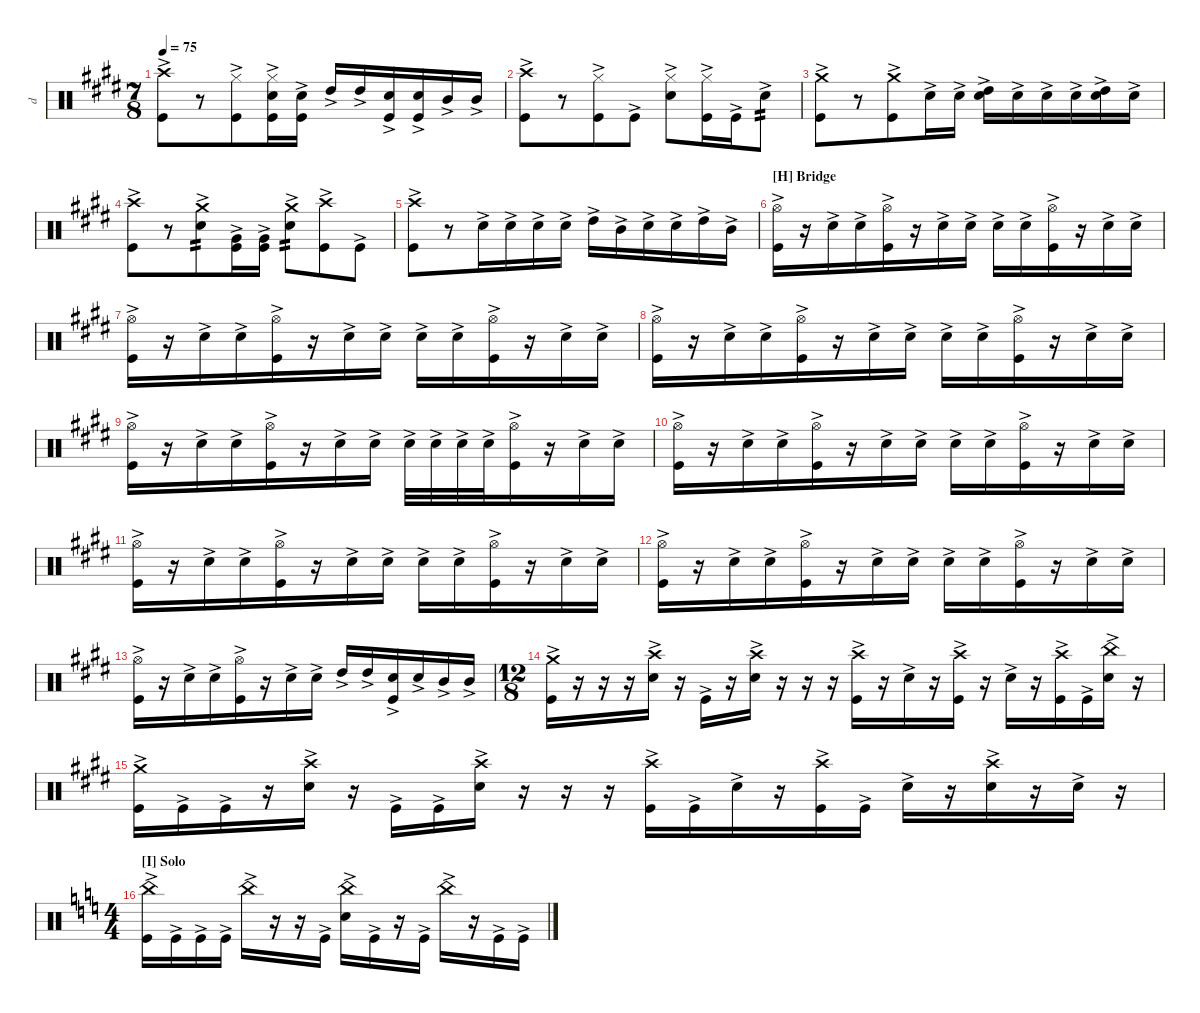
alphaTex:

\defaultSystemsLayout 4
\hideDynamics
\bracketExtendMode nobrackets
\otherSystemsTrackNameOrientation horizontal
\track ("Drumkit" "d") {instrument percussion}
\staff {score}
\articulation defaults
\ts (7 8)
\tempo 75
\clef neutral
\ks c#minor
("Crash high (hit)"{ac} "Kick (hit)"{ac}).8{dy mf} r.8 ("Hi-Hat (closed)"{ac} "Kick (hit)"{ac}).8 ("Hi-Hat (closed)"{ac} "Snare (hit) 2"{ac} "Kick (hit)"{ac}).16 ("Snare (hit) 2"{ac} "Kick (hit)"{ac}).16 "High Tom (hit)"{ac}.16 "High Tom (hit)"{ac}.16 ("Snare (hit) 2"{ac} "Kick (hit)"{ac}).16 ("Snare (hit) 2"{ac} "Kick (hit)"{ac}).16 "Mid Tom (hit)"{ac}.16 "Mid Tom (hit)"{ac}.16 |
("Crash high (hit)"{ac} "Kick (hit)"{ac}).8 r.8 ("Hi-Hat (closed)"{ac} "Kick (hit)"{ac}).8 "Kick (hit)"{ac}.8 ("Hi-Hat (closed)"{ac} "Snare (hit) 2"{ac}).8 ("Hi-Hat (closed)"{ac} "Kick (hit)"{ac}).16 "Kick (hit)"{ac}.16 "Snare (hit) 2"{ac}.8{tp 2} |
("Crash medium (hit)"{ac} "Kick (hit)"{ac}).8 r.8 ("Crash medium (hit)"{ac} "Kick (hit)"{ac}).8 "Snare (hit) 2"{ac}.16 "Snare (hit) 2"{ac}.16 ("High Tom (hit)"{ac} "Snare (hit) 2"{ac}).16 "Snare (hit) 2"{ac}.16 "Snare (hit) 2"{ac}.16 "Snare (hit) 2"{ac}.16 ("High Tom (hit)"{ac} "Snare (hit) 2"{ac}).16 "Snare (hit) 2"{ac}.16 |
("Crash high (hit)"{ac} "Kick (hit)"{ac}).8 r.8 ("Crash medium (hit)"{ac} "Snare (hit) 2"{ac}).8{tp 2} ("Very Low Tom (hit)"{ac} "Kick (hit)"{ac}).16 ("Very Low Tom (hit)"{ac} "Kick (hit)"{ac}).16 ("Crash medium (hit)"{ac} "Snare (hit) 2"{ac}).8{tp 2} ("Crash high (hit)"{ac} "Kick (hit)"{ac}).8 "Kick (hit)"{ac}.8 |
("Crash high (hit)"{ac} "Kick (hit)"{ac}).8 r.8 "Snare (hit) 2"{ac}.16 "Snare (hit) 2"{ac}.16 "Snare (hit) 2"{ac}.16 "Snare (hit) 2"{ac}.16 "High Tom (hit)"{ac}.16 "Mid Tom (hit)"{ac}.16 "Snare (hit) 2"{ac}.16 "Snare (hit) 2"{ac}.16 "High Tom (hit)"{ac}.16 "Mid Tom (hit)"{ac}.16 |
\section ("H" "Bridge")
("Hi-Hat (open)"{ac} "Kick (hit)"{ac}).16 r.16 "Snare (hit) 2"{ac}.16 "Snare (hit) 2"{ac}.16 ("Hi-Hat (open)"{ac} "Kick (hit)"{ac}).16 r.16 "Snare (hit) 2"{ac}.16 "Snare (hit) 2"{ac}.16 "Snare (hit) 2"{ac}.16 "Snare (hit) 2"{ac}.16 ("Hi-Hat (open)"{ac} "Kick (hit)"{ac}).16 r.16 "Snare (hit) 2"{ac}.16 "Snare (hit) 2"{ac}.16 |
("Hi-Hat (open)"{ac} "Kick (hit)"{ac}).16 r.16 "Snare (hit) 2"{ac}.16 "Snare (hit) 2"{ac}.16 ("Hi-Hat (open)"{ac} "Kick (hit)"{ac}).16 r.16 "Snare (hit) 2"{ac}.16 "Snare (hit) 2"{ac}.16 "Snare (hit) 2"{ac}.16 "Snare (hit) 2"{ac}.16 ("Hi-Hat (open)"{ac} "Kick (hit)"{ac}).16 r.16 "Snare (hit) 2"{ac}.16 "Snare (hit) 2"{ac}.16 |
("Hi-Hat (open)"{ac} "Kick (hit)"{ac}).16 r.16 "Snare (hit) 2"{ac}.16 "Snare (hit) 2"{ac}.16 ("Hi-Hat (open)"{ac} "Kick (hit)"{ac}).16 r.16 "Snare (hit) 2"{ac}.16 "Snare (hit) 2"{ac}.16 "Snare (hit) 2"{ac}.16 "Snare (hit) 2"{ac}.16 ("Hi-Hat (open)"{ac} "Kick (hit)"{ac}).16 r.16 "Snare (hit) 2"{ac}.16 "Snare (hit) 2"{ac}.16 |
("Hi-Hat (open)"{ac} "Kick (hit)"{ac}).16 r.16 "Snare (hit) 2"{ac}.16 "Snare (hit) 2"{ac}.16 ("Hi-Hat (open)"{ac} "Kick (hit)"{ac}).16 r.16 "Snare (hit) 2"{ac}.16 "Snare (hit) 2"{ac}.16 "Snare (hit) 2"{ac}.32 "Snare (hit) 2"{ac}.32 "Snare (hit) 2"{ac}.32 "Snare (hit) 2"{ac}.32 ("Hi-Hat (open)"{ac} "Kick (hit)"{ac}).16 r.16 "Snare (hit) 2"{ac}.16 "Snare (hit) 2"{ac}.16 |
("Hi-Hat (open)"{ac} "Kick (hit)"{ac}).16 r.16 "Snare (hit) 2"{ac}.16 "Snare (hit) 2"{ac}.16 ("Hi-Hat (open)"{ac} "Kick (hit)"{ac}).16 r.16 "Snare (hit) 2"{ac}.16 "Snare (hit) 2"{ac}.16 "Snare (hit) 2"{ac}.16 "Snare (hit) 2"{ac}.16 ("Hi-Hat (open)"{ac} "Kick (hit)"{ac}).16 r.16 "Snare (hit) 2"{ac}.16 "Snare (hit) 2"{ac}.16 |
("Hi-Hat (open)"{ac} "Kick (hit)"{ac}).16 r.16 "Snare (hit) 2"{ac}.16 "Snare (hit) 2"{ac}.16 ("Hi-Hat (open)"{ac} "Kick (hit)"{ac}).16 r.16 "Snare (hit) 2"{ac}.16 "Snare (hit) 2"{ac}.16 "Snare (hit) 2"{ac}.16 "Snare (hit) 2"{ac}.16 ("Hi-Hat (open)"{ac} "Kick (hit)"{ac}).16 r.16 "Snare (hit) 2"{ac}.16 "Snare (hit) 2"{ac}.16 |
("Hi-Hat (open)"{ac} "Kick (hit)"{ac}).16 r.16 "Snare (hit) 2"{ac}.16 "Snare (hit) 2"{ac}.16 ("Hi-Hat (open)"{ac} "Kick (hit)"{ac}).16 r.16 "Snare (hit) 2"{ac}.16 "Snare (hit) 2"{ac}.16 "Snare (hit) 2"{ac}.16 "Snare (hit) 2"{ac}.16 ("Hi-Hat (open)"{ac} "Kick (hit)"{ac}).16 r.16 "Snare (hit) 2"{ac}.16 "Snare (hit) 2"{ac}.16 |
("Hi-Hat (open)"{ac} "Kick (hit)"{ac}).16 r.16 "Snare (hit) 2"{ac}.16 "Snare (hit) 2"{ac}.16 ("Hi-Hat (open)"{ac} "Kick (hit)"{ac}).16 r.16 "Snare (hit) 2"{ac}.16 "Snare (hit) 2"{ac}.16 "High Tom (hit)"{ac}.16 "High Tom (hit)"{ac}.16 ("Snare (hit) 2"{ac} "Kick (hit)"{ac}).16 "Snare (hit) 2"{ac}.16 "Mid Tom (hit)"{ac}.16 "Mid Tom (hit)"{ac}.16 |
\ts (12 8)
\beaming (8 3 3 3 3)
("Crash medium (hit)"{ac} "Kick (hit)"{ac}).16 r.16 r.16 r.16 ("Crash high (hit)"{ac} "Snare (hit) 2"{ac}).16 r.16 "Kick (hit)"{ac}.16 r.16 ("Crash high (hit)"{ac} "Snare (hit) 2"{ac}).16 r.16 r.16 r.16 ("Crash high (hit)"{ac} "Kick (hit)"{ac}).16 r.16 "Snare (hit) 2"{ac}.16 r.16 ("Crash high (hit)"{ac} "Kick (hit)"{ac}).16 r.16 "Snare (hit) 2"{ac}.16 r.16 ("Crash high (hit)"{ac} "Kick (hit)"{ac}).16 "Kick (hit)"{ac}.16 ("China (hit)"{ac} "Snare (hit) 2"{ac}).16 r.16 |
("Crash medium (hit)"{ac} "Kick (hit)"{ac}).16 "Kick (hit)"{ac}.16 "Kick (hit)"{ac}.16 r.16 ("Crash high (hit)"{ac} "Snare (hit) 2"{ac}).16 r.16 "Kick (hit)"{ac}.16 "Kick (hit)"{ac}.16 ("Crash high (hit)"{ac} "Snare (hit) 2"{ac}).16 r.16 r.16 r.16 ("Crash high (hit)"{ac} "Kick (hit)"{ac}).16 "Kick (hit)"{ac}.16 "Snare (hit) 2"{ac}.16 r.16 ("Crash high (hit)"{ac} "Kick (hit)"{ac}).16 "Kick (hit)"{ac}.16 "Snare (hit) 2"{ac}.16 r.16 ("Crash high (hit)"{ac} "Snare (hit) 2"{ac}).16 r.16 "Snare (hit) 2"{ac}.16 r.16 |
\ts (4 4)
\beaming (8 2 2 2 2)
\section ("I" "Solo")
\ks c
("China (hit)"{ac} "Kick (hit)"{ac}).16 "Kick (hit)"{ac}.16 "Kick (hit)"{ac}.16 "Kick (hit)"{ac}.16 "China (hit)"{ac}.16 r.16 r.16 "Kick (hit)"{ac}.16 ("China (hit)"{ac} "Snare (hit) 2"{ac}).16 "Kick (hit)"{ac}.16 r.16 "Kick (hit)"{ac}.16 "China (hit)"{ac}.16 r.16 "Kick (hit)"{ac}.16 "Kick (hit)"{ac}.16
